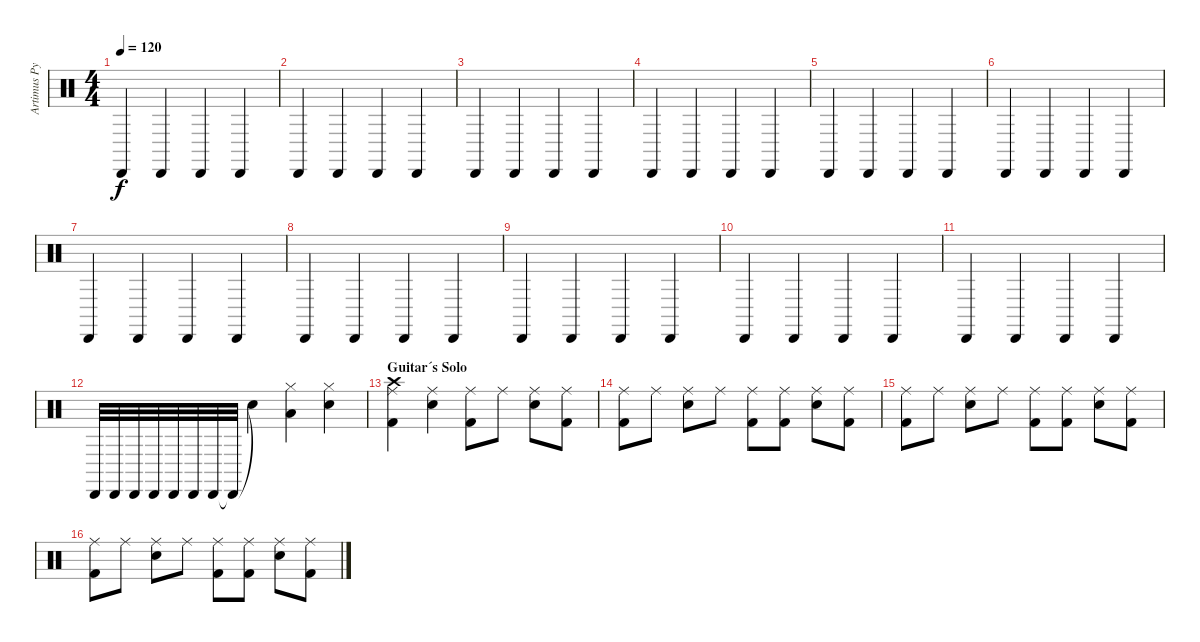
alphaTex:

\track ("Artimus Pyle" "Artimus Py") {instrument percussion}
\staff {score}
\articulation defaults
\ts (4 4)
\tempo 120
\clef neutral
\ks c "Cabasa (hit)".4{dy f} "Cabasa (hit)".4 "Cabasa (hit)".4 "Cabasa (hit)".4
|
"Cabasa (hit)".4 "Cabasa (hit)".4 "Cabasa (hit)".4 "Cabasa (hit)".4 |
"Cabasa (hit)".4 "Cabasa (hit)".4 "Cabasa (hit)".4 "Cabasa (hit)".4 |
"Cabasa (hit)".4 "Cabasa (hit)".4 "Cabasa (hit)".4 "Cabasa (hit)".4 |
"Cabasa (hit)".4 "Cabasa (hit)".4 "Cabasa (hit)".4 "Cabasa (hit)".4 |
"Cabasa (hit)".4 "Cabasa (hit)".4 "Cabasa (hit)".4 "Cabasa (hit)".4 |
"Cabasa (hit)".4 "Cabasa (hit)".4 "Cabasa (hit)".4 "Cabasa (hit)".4 |
"Cabasa (hit)".4 "Cabasa (hit)".4 "Cabasa (hit)".4 "Cabasa (hit)".4 |
"Cabasa (hit)".4 "Cabasa (hit)".4 "Cabasa (hit)".4 "Cabasa (hit)".4 |
"Cabasa (hit)".4 "Cabasa (hit)".4 "Cabasa (hit)".4 "Cabasa (hit)".4 |
"Cabasa (hit)".4 "Cabasa (hit)".4 "Cabasa (hit)".4 "Cabasa (hit)".4 |
"Cabasa (hit)".32 "Cabasa (hit)".32 "Cabasa (hit)".32 "Cabasa (hit)".32 "Cabasa (hit)".32 "Cabasa (hit)".32 "Cabasa (hit)".32 "Cabasa (hit)"{t}.32 "Snare (hit)"{t}.4 ("Hi-Hat (closed)" "Low Tom (hit)").4 ("Hi-Hat (closed)" "Snare (hit) 2").4 |
\section ("" "Guitar´s Solo")
("Crash high (hit)" "Ride (middle)" "Kick (hit) 2").4 ("Ride (middle)" "Snare (hit) 2").4 ("Ride (middle)" "Kick (hit) 2").8 "Ride (middle)".8 ("Ride (middle)" "Snare (hit) 2").8 ("Ride (middle)" "Kick (hit) 2").8 |
("Ride (middle)" "Kick (hit) 2").8 "Ride (middle)".8 ("Ride (middle)" "Snare (hit) 2").8 "Ride (middle)".8 ("Ride (middle)" "Kick (hit) 2").8 ("Ride (middle)" "Kick (hit) 2").8 ("Ride (middle)" "Snare (hit) 2").8 ("Ride (middle)" "Kick (hit) 2").8 |
("Ride (middle)" "Kick (hit) 2").8 "Ride (middle)".8 ("Ride (middle)" "Snare (hit) 2").8 "Ride (middle)".8 ("Ride (middle)" "Kick (hit) 2").8 ("Ride (middle)" "Kick (hit) 2").8 ("Ride (middle)" "Snare (hit) 2").8 ("Ride (middle)" "Kick (hit) 2").8 |
("Ride (middle)" "Kick (hit) 2").8 "Ride (middle)".8 ("Ride (middle)" "Snare (hit) 2").8 "Ride (middle)".8 ("Ride (middle)" "Kick (hit) 2").8 ("Ride (middle)" "Kick (hit) 2").8 ("Ride (middle)" "Snare (hit) 2").8 ("Ride (middle)" "Kick (hit) 2").8
